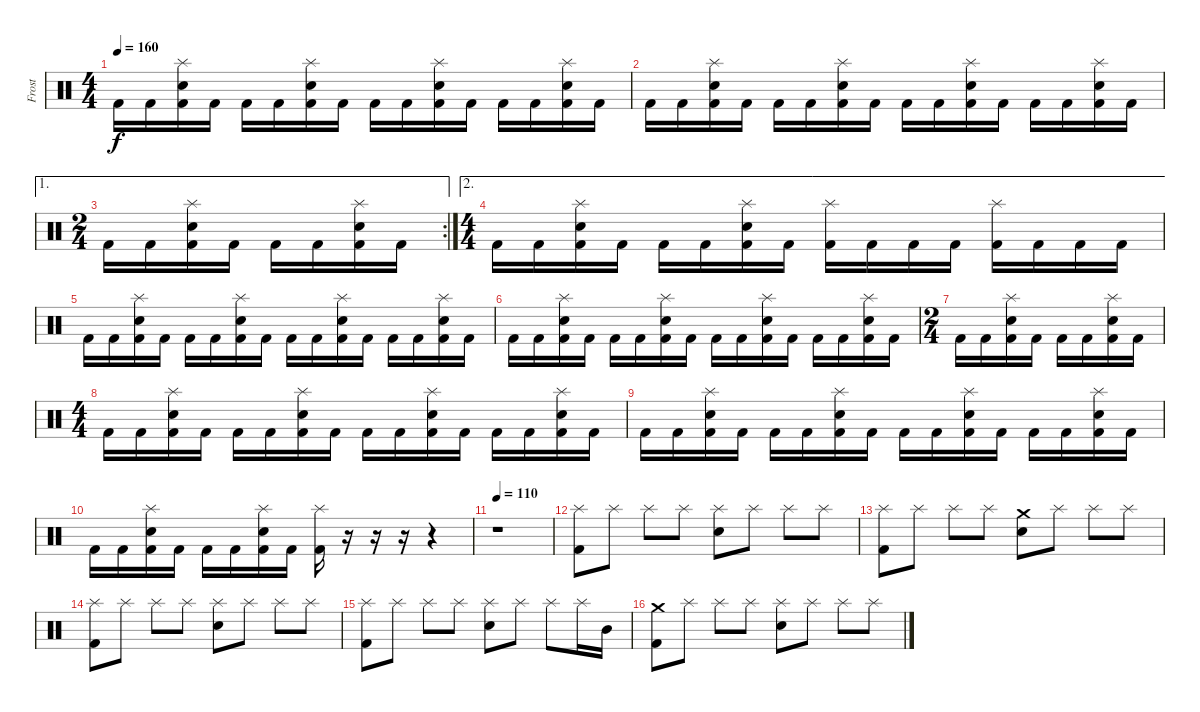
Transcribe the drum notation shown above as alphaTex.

\track ("Frost" "Frost") {instrument percussion}
\staff {score}
\articulation defaults
\ts (4 4)
\tempo 160
\clef neutral
\ks c "Kick (hit) 2".16{dy f} "Kick (hit) 2".16
("Kick (hit) 2" "Snare (hit) 2" "Splash (hit)").16 "Kick (hit) 2".16 "Kick (hit) 2".16 "Kick (hit) 2".16 ("Kick (hit) 2" "Snare (hit) 2" "Splash (hit)").16 "Kick (hit) 2".16 "Kick (hit) 2".16 "Kick (hit) 2".16 ("Kick (hit) 2" "Snare (hit) 2" "Splash (hit)").16 "Kick (hit) 2".16 "Kick (hit) 2".16 "Kick (hit) 2".16 ("Kick (hit) 2" "Snare (hit) 2" "Splash (hit)").16 "Kick (hit) 2".16 |
"Kick (hit) 2".16 "Kick (hit) 2".16 ("Kick (hit) 2" "Snare (hit) 2" "Splash (hit)").16 "Kick (hit) 2".16 "Kick (hit) 2".16 "Kick (hit) 2".16 ("Kick (hit) 2" "Snare (hit) 2" "Splash (hit)").16 "Kick (hit) 2".16 "Kick (hit) 2".16 "Kick (hit) 2".16 ("Kick (hit) 2" "Snare (hit) 2" "Splash (hit)").16 "Kick (hit) 2".16 "Kick (hit) 2".16 "Kick (hit) 2".16 ("Kick (hit) 2" "Snare (hit) 2" "Splash (hit)").16 "Kick (hit) 2".16 |
\ae 1
\rc 2
\ts (2 4)
"Kick (hit) 2".16 "Kick (hit) 2".16 ("Kick (hit) 2" "Snare (hit) 2" "Splash (hit)").16 "Kick (hit) 2".16 "Kick (hit) 2".16 "Kick (hit) 2".16 ("Kick (hit) 2" "Snare (hit) 2" "Splash (hit)").16 "Kick (hit) 2".16 |
\ae 2
\ts (4 4)
"Kick (hit) 2".16 "Kick (hit) 2".16 ("Kick (hit) 2" "Snare (hit) 2" "Splash (hit)").16 "Kick (hit) 2".16 "Kick (hit) 2".16 "Kick (hit) 2".16 ("Kick (hit) 2" "Snare (hit) 2" "Splash (hit)").16 "Kick (hit) 2".16 ("Kick (hit) 2" "Splash (hit)").16 "Kick (hit) 2".16 "Kick (hit) 2".16 "Kick (hit) 2".16 ("Kick (hit) 2" "Splash (hit)").16 "Kick (hit) 2".16 "Kick (hit) 2".16 "Kick (hit) 2".16 |
"Kick (hit) 2".16 "Kick (hit) 2".16 ("Kick (hit) 2" "Snare (hit) 2" "Splash (hit)").16 "Kick (hit) 2".16 "Kick (hit) 2".16 "Kick (hit) 2".16 ("Kick (hit) 2" "Snare (hit) 2" "Splash (hit)").16 "Kick (hit) 2".16 "Kick (hit) 2".16 "Kick (hit) 2".16 ("Kick (hit) 2" "Snare (hit) 2" "Splash (hit)").16 "Kick (hit) 2".16 "Kick (hit) 2".16 "Kick (hit) 2".16 ("Kick (hit) 2" "Snare (hit) 2" "Splash (hit)").16 "Kick (hit) 2".16 |
"Kick (hit) 2".16 "Kick (hit) 2".16 ("Kick (hit) 2" "Snare (hit) 2" "Splash (hit)").16 "Kick (hit) 2".16 "Kick (hit) 2".16 "Kick (hit) 2".16 ("Kick (hit) 2" "Snare (hit) 2" "Splash (hit)").16 "Kick (hit) 2".16 "Kick (hit) 2".16 "Kick (hit) 2".16 ("Kick (hit) 2" "Snare (hit) 2" "Splash (hit)").16 "Kick (hit) 2".16 "Kick (hit) 2".16 "Kick (hit) 2".16 ("Kick (hit) 2" "Snare (hit) 2" "Splash (hit)").16 "Kick (hit) 2".16 |
\ts (2 4)
"Kick (hit) 2".16 "Kick (hit) 2".16 ("Kick (hit) 2" "Snare (hit) 2" "Splash (hit)").16 "Kick (hit) 2".16 "Kick (hit) 2".16 "Kick (hit) 2".16 ("Kick (hit) 2" "Snare (hit) 2" "Splash (hit)").16 "Kick (hit) 2".16 |
\ts (4 4)
"Kick (hit) 2".16 "Kick (hit) 2".16 ("Kick (hit) 2" "Snare (hit) 2" "Splash (hit)").16 "Kick (hit) 2".16 "Kick (hit) 2".16 "Kick (hit) 2".16 ("Kick (hit) 2" "Snare (hit) 2" "Splash (hit)").16 "Kick (hit) 2".16 "Kick (hit) 2".16 "Kick (hit) 2".16 ("Kick (hit) 2" "Snare (hit) 2" "Splash (hit)").16 "Kick (hit) 2".16 "Kick (hit) 2".16 "Kick (hit) 2".16 ("Kick (hit) 2" "Snare (hit) 2" "Splash (hit)").16 "Kick (hit) 2".16 |
"Kick (hit) 2".16 "Kick (hit) 2".16 ("Kick (hit) 2" "Snare (hit) 2" "Splash (hit)").16 "Kick (hit) 2".16 "Kick (hit) 2".16 "Kick (hit) 2".16 ("Kick (hit) 2" "Snare (hit) 2" "Splash (hit)").16 "Kick (hit) 2".16 "Kick (hit) 2".16 "Kick (hit) 2".16 ("Kick (hit) 2" "Snare (hit) 2" "Splash (hit)").16 "Kick (hit) 2".16 "Kick (hit) 2".16 "Kick (hit) 2".16 ("Kick (hit) 2" "Snare (hit) 2" "Splash (hit)").16 "Kick (hit) 2".16 |
"Kick (hit) 2".16 "Kick (hit) 2".16 ("Kick (hit) 2" "Snare (hit) 2" "Splash (hit)").16 "Kick (hit) 2".16 "Kick (hit) 2".16 "Kick (hit) 2".16 ("Kick (hit) 2" "Snare (hit) 2" "Splash (hit)").16 "Kick (hit) 2".16 ("Kick (hit) 2" "Splash (hit)").16 r.16 r.16 r.16 r.4 |
\tempo 110
r.1 |
("Kick (hit) 2" "Splash (hit)").8 "Splash (hit)".8 "Splash (hit)".8 "Splash (hit)".8 ("Snare (hit) 2" "Splash (hit)").8 "Splash (hit)".8 "Splash (hit)".8 "Splash (hit)".8 |
("Kick (hit) 2" "Splash (hit)").8 "Splash (hit)".8 "Splash (hit)".8 "Splash (hit)".8 ("Snare (hit) 2" "Crash medium (hit)").8 "Splash (hit)".8 "Splash (hit)".8 "Splash (hit)".8 |
("Kick (hit) 2" "Splash (hit)").8 "Splash (hit)".8 "Splash (hit)".8 "Splash (hit)".8 ("Snare (hit) 2" "Splash (hit)").8 "Splash (hit)".8 "Splash (hit)".8 "Splash (hit)".8 |
("Kick (hit) 2" "Splash (hit)").8 "Splash (hit)".8 "Splash (hit)".8 "Splash (hit)".8 ("Snare (hit) 2" "Splash (hit)").8 "Splash (hit)".8 "Splash (hit)".8 "Splash (hit)".16 "Mid Tom (hit)".16 |
("Kick (hit) 2" "Crash medium (hit)").8 "Splash (hit)".8 "Splash (hit)".8 "Splash (hit)".8 ("Snare (hit) 2" "Splash (hit)").8 "Splash (hit)".8 "Splash (hit)".8 "Splash (hit)".8
